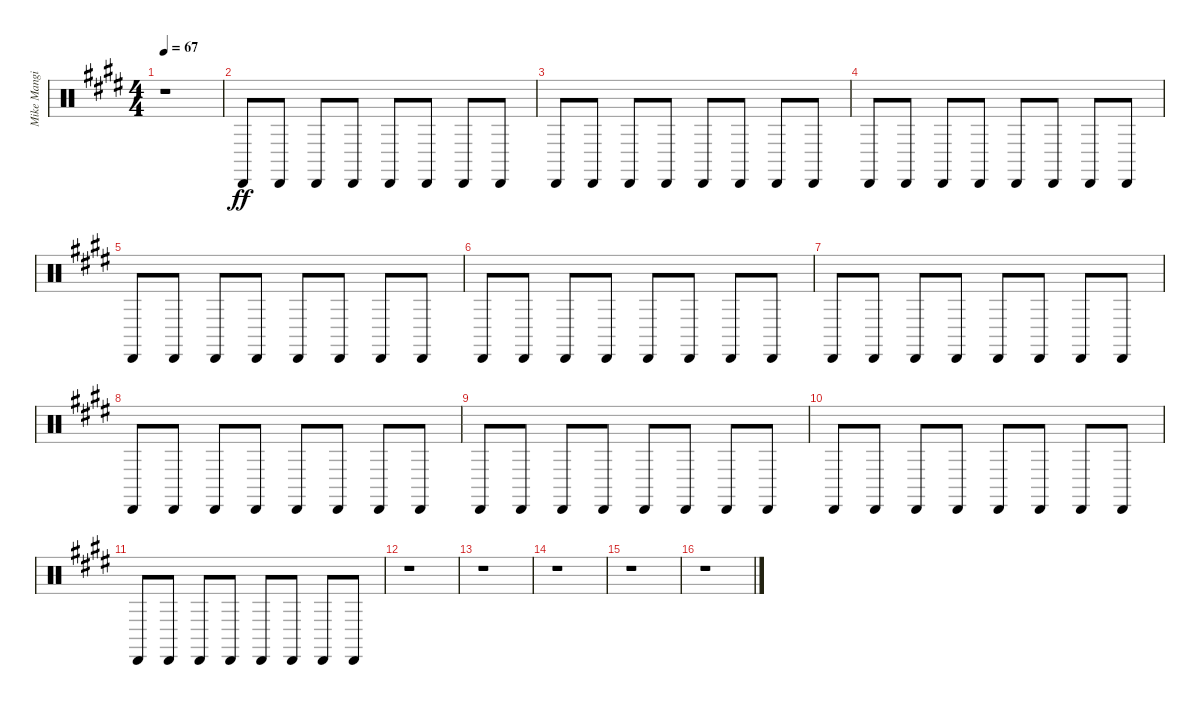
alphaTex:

\track ("Mike Mangini - Percussion" "Mike Mangi") {instrument percussion}
\staff {score}
\articulation defaults
\ts (4 4)
\tempo 67
\clef neutral
\ks e
r.1{dy ff} |
"Cabasa (hit)".8 "Cabasa (hit)".8 "Cabasa (hit)".8 "Cabasa (hit)".8 "Cabasa (hit)".8 "Cabasa (hit)".8 "Cabasa (hit)".8 "Cabasa (hit)".8 |
"Cabasa (hit)".8 "Cabasa (hit)".8 "Cabasa (hit)".8 "Cabasa (hit)".8 "Cabasa (hit)".8 "Cabasa (hit)".8 "Cabasa (hit)".8 "Cabasa (hit)".8 |
"Cabasa (hit)".8 "Cabasa (hit)".8 "Cabasa (hit)".8 "Cabasa (hit)".8 "Cabasa (hit)".8 "Cabasa (hit)".8 "Cabasa (hit)".8 "Cabasa (hit)".8 |
"Cabasa (hit)".8 "Cabasa (hit)".8 "Cabasa (hit)".8 "Cabasa (hit)".8 "Cabasa (hit)".8 "Cabasa (hit)".8 "Cabasa (hit)".8 "Cabasa (hit)".8 |
"Cabasa (hit)".8 "Cabasa (hit)".8 "Cabasa (hit)".8 "Cabasa (hit)".8 "Cabasa (hit)".8 "Cabasa (hit)".8 "Cabasa (hit)".8 "Cabasa (hit)".8 |
"Cabasa (hit)".8 "Cabasa (hit)".8 "Cabasa (hit)".8 "Cabasa (hit)".8 "Cabasa (hit)".8 "Cabasa (hit)".8 "Cabasa (hit)".8 "Cabasa (hit)".8 |
"Cabasa (hit)".8 "Cabasa (hit)".8 "Cabasa (hit)".8 "Cabasa (hit)".8 "Cabasa (hit)".8 "Cabasa (hit)".8 "Cabasa (hit)".8 "Cabasa (hit)".8 |
"Cabasa (hit)".8 "Cabasa (hit)".8 "Cabasa (hit)".8 "Cabasa (hit)".8 "Cabasa (hit)".8 "Cabasa (hit)".8 "Cabasa (hit)".8 "Cabasa (hit)".8 |
"Cabasa (hit)".8 "Cabasa (hit)".8 "Cabasa (hit)".8 "Cabasa (hit)".8 "Cabasa (hit)".8 "Cabasa (hit)".8 "Cabasa (hit)".8 "Cabasa (hit)".8 |
"Cabasa (hit)".8 "Cabasa (hit)".8 "Cabasa (hit)".8 "Cabasa (hit)".8 "Cabasa (hit)".8 "Cabasa (hit)".8 "Cabasa (hit)".8 "Cabasa (hit)".8 |
r.1 |
r.1 |
r.1 |
r.1 |
r.1
